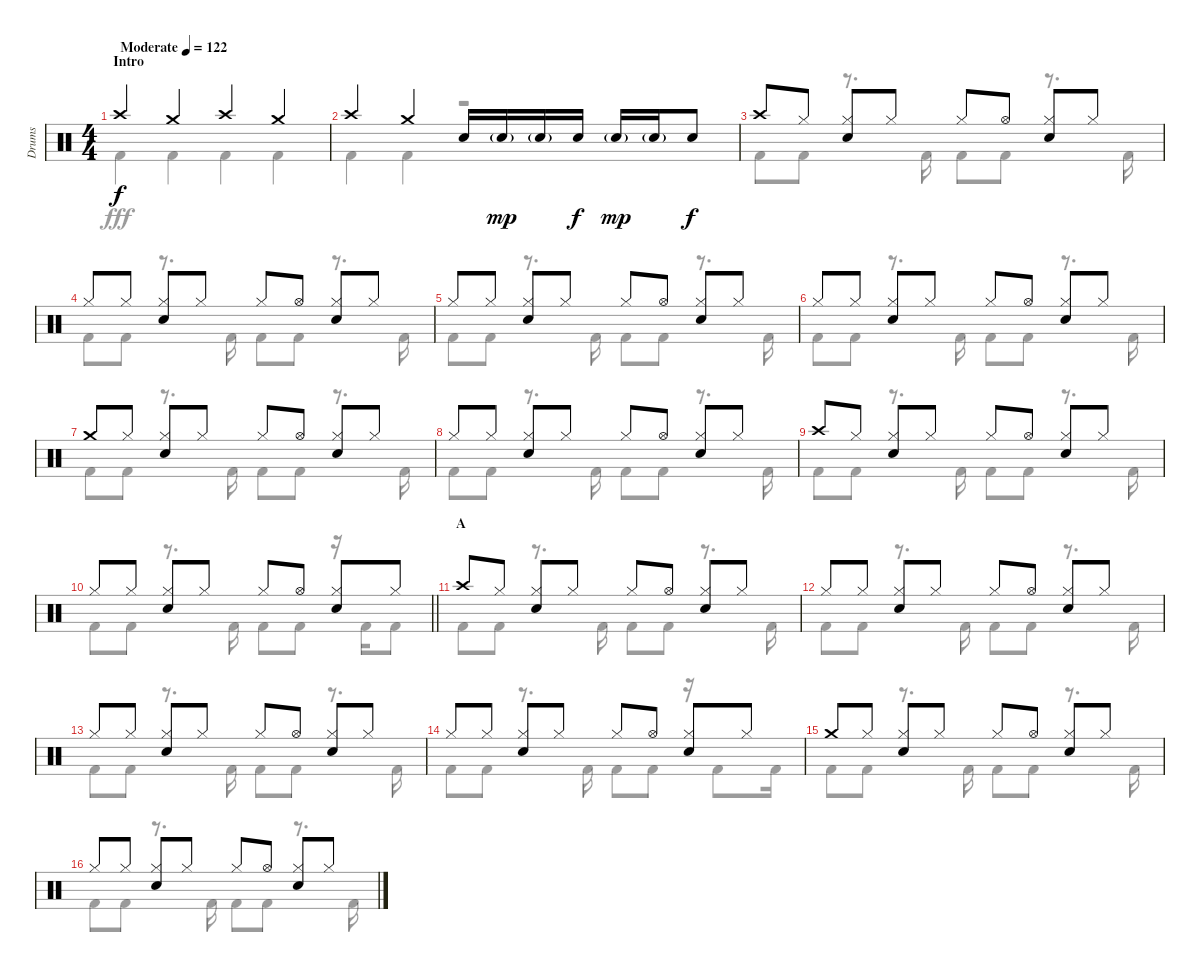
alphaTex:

\track ("Drums" "Drums") {instrument percussion}
\staff {score}
\articulation defaults
\voice
\ts (4 4)
\section ("" "Intro")
\tempo (122 "Moderate")
\clef neutral
\ks c "Crash high (hit)".4{dy f} "Crash medium (hit)".4 "Crash high (hit)".4 "Crash medium (hit)".4
|
"Crash high (hit)".4 "Crash medium (hit)".4 "Snare (hit) 2".16 "Snare (hit) 2"{g}.16{dy mp} "Snare (hit) 2"{g}.16 "Snare (hit) 2".16{dy f} "Snare (hit) 2"{g}.16{dy mp} "Snare (hit) 2"{g}.16 "Snare (hit) 2".8{dy f} |
"Crash high (hit)".8 "Hi-Hat (closed)".8 ("Hi-Hat (closed)" "Snare (hit) 2").8 "Hi-Hat (closed)".8 "Hi-Hat (closed)".8 "Hi-Hat (open)".8 ("Hi-Hat (closed)" "Snare (hit) 2").8 "Hi-Hat (closed)".8 |
"Hi-Hat (closed)".8 "Hi-Hat (closed)".8 ("Hi-Hat (closed)" "Snare (hit) 2").8 "Hi-Hat (closed)".8 "Hi-Hat (closed)".8 "Hi-Hat (open)".8 ("Hi-Hat (closed)" "Snare (hit) 2").8 "Hi-Hat (closed)".8 |
"Hi-Hat (closed)".8 "Hi-Hat (closed)".8 ("Hi-Hat (closed)" "Snare (hit) 2").8 "Hi-Hat (closed)".8 "Hi-Hat (closed)".8 "Hi-Hat (open)".8 ("Hi-Hat (closed)" "Snare (hit) 2").8 "Hi-Hat (closed)".8 |
"Hi-Hat (closed)".8 "Hi-Hat (closed)".8 ("Hi-Hat (closed)" "Snare (hit) 2").8 "Hi-Hat (closed)".8 "Hi-Hat (closed)".8 "Hi-Hat (open)".8 ("Hi-Hat (closed)" "Snare (hit) 2").8 "Hi-Hat (closed)".8 |
"Crash medium (hit)".8 "Hi-Hat (closed)".8 ("Hi-Hat (closed)" "Snare (hit) 2").8 "Hi-Hat (closed)".8 "Hi-Hat (closed)".8 "Hi-Hat (open)".8 ("Hi-Hat (closed)" "Snare (hit) 2").8 "Hi-Hat (closed)".8 |
"Hi-Hat (closed)".8 "Hi-Hat (closed)".8 ("Hi-Hat (closed)" "Snare (hit) 2").8 "Hi-Hat (closed)".8 "Hi-Hat (closed)".8 "Hi-Hat (open)".8 ("Hi-Hat (closed)" "Snare (hit) 2").8 "Hi-Hat (closed)".8 |
"Crash high (hit)".8 "Hi-Hat (closed)".8 ("Hi-Hat (closed)" "Snare (hit) 2").8 "Hi-Hat (closed)".8 "Hi-Hat (closed)".8 "Hi-Hat (open)".8 ("Hi-Hat (closed)" "Snare (hit) 2").8 "Hi-Hat (closed)".8 |
\barLineRight lightlight "Hi-Hat (closed)".8 "Hi-Hat (closed)".8
("Hi-Hat (closed)" "Snare (hit) 2").8 "Hi-Hat (closed)".8 "Hi-Hat (closed)".8 "Hi-Hat (open)".8 ("Hi-Hat (closed)" "Snare (hit) 2").8 "Hi-Hat (closed)".8 |
\section ("" "A")
"Crash high (hit)".8 "Hi-Hat (closed)".8 ("Hi-Hat (closed)" "Snare (hit) 2").8 "Hi-Hat (closed)".8 "Hi-Hat (closed)".8 "Hi-Hat (open)".8 ("Hi-Hat (closed)" "Snare (hit) 2").8 "Hi-Hat (closed)".8 |
"Hi-Hat (closed)".8 "Hi-Hat (closed)".8 ("Hi-Hat (closed)" "Snare (hit) 2").8 "Hi-Hat (closed)".8 "Hi-Hat (closed)".8 "Hi-Hat (open)".8 ("Hi-Hat (closed)" "Snare (hit) 2").8 "Hi-Hat (closed)".8 |
"Hi-Hat (closed)".8 "Hi-Hat (closed)".8 ("Hi-Hat (closed)" "Snare (hit) 2").8 "Hi-Hat (closed)".8 "Hi-Hat (closed)".8 "Hi-Hat (open)".8 ("Hi-Hat (closed)" "Snare (hit) 2").8 "Hi-Hat (closed)".8 |
"Hi-Hat (closed)".8 "Hi-Hat (closed)".8 ("Hi-Hat (closed)" "Snare (hit) 2").8 "Hi-Hat (closed)".8 "Hi-Hat (closed)".8 "Hi-Hat (open)".8 ("Hi-Hat (closed)" "Snare (hit) 2").8 "Hi-Hat (closed)".8 |
"Crash medium (hit)".8 "Hi-Hat (closed)".8 ("Hi-Hat (closed)" "Snare (hit) 2").8 "Hi-Hat (closed)".8 "Hi-Hat (closed)".8 "Hi-Hat (open)".8 ("Hi-Hat (closed)" "Snare (hit) 2").8 "Hi-Hat (closed)".8 |
"Hi-Hat (closed)".8 "Hi-Hat (closed)".8 ("Hi-Hat (closed)" "Snare (hit) 2").8 "Hi-Hat (closed)".8 "Hi-Hat (closed)".8 "Hi-Hat (open)".8 ("Hi-Hat (closed)" "Snare (hit) 2").8 "Hi-Hat (closed)".8
\voice
\clef neutral
\ottava regular
\simile none
\ks c "Kick (hit) 2".4{dy fff} "Kick (hit) 2".4 "Kick (hit) 2".4 "Kick (hit) 2".4
|
"Kick (hit) 2".4 "Kick (hit) 2".4 r.2 |
"Kick (hit) 2".8 "Kick (hit) 2".8 r.8{d} "Kick (hit) 2".16 "Kick (hit) 2".8 "Kick (hit) 2".8 r.8{d} "Kick (hit) 2".16 |
"Kick (hit) 2".8 "Kick (hit) 2".8 r.8{d} "Kick (hit) 2".16 "Kick (hit) 2".8 "Kick (hit) 2".8 r.8{d} "Kick (hit) 2".16 |
"Kick (hit) 2".8 "Kick (hit) 2".8 r.8{d} "Kick (hit) 2".16 "Kick (hit) 2".8 "Kick (hit) 2".8 r.8{d} "Kick (hit) 2".16 |
"Kick (hit) 2".8 "Kick (hit) 2".8 r.8{d} "Kick (hit) 2".16 "Kick (hit) 2".8 "Kick (hit) 2".8 r.8{d} "Kick (hit) 2".16 |
"Kick (hit) 2".8 "Kick (hit) 2".8 r.8{d} "Kick (hit) 2".16 "Kick (hit) 2".8 "Kick (hit) 2".8 r.8{d} "Kick (hit) 2".16 |
"Kick (hit) 2".8 "Kick (hit) 2".8 r.8{d} "Kick (hit) 2".16 "Kick (hit) 2".8 "Kick (hit) 2".8 r.8{d} "Kick (hit) 2".16 |
"Kick (hit) 2".8 "Kick (hit) 2".8 r.8{d} "Kick (hit) 2".16 "Kick (hit) 2".8 "Kick (hit) 2".8 r.8{d} "Kick (hit) 2".16 |
\barLineRight lightlight "Kick (hit) 2".8 "Kick (hit) 2".8
r.8{d} "Kick (hit) 2".16 "Kick (hit) 2".8 "Kick (hit) 2".8 r.16 "Kick (hit) 2".16 "Kick (hit) 2".8 |
"Kick (hit) 2".8 "Kick (hit) 2".8 r.8{d} "Kick (hit) 2".16 "Kick (hit) 2".8 "Kick (hit) 2".8 r.8{d} "Kick (hit) 2".16 |
"Kick (hit) 2".8 "Kick (hit) 2".8 r.8{d} "Kick (hit) 2".16 "Kick (hit) 2".8 "Kick (hit) 2".8 r.8{d} "Kick (hit) 2".16 |
"Kick (hit) 2".8 "Kick (hit) 2".8 r.8{d} "Kick (hit) 2".16 "Kick (hit) 2".8 "Kick (hit) 2".8 r.8{d} "Kick (hit) 2".16 |
"Kick (hit) 2".8 "Kick (hit) 2".8 r.8{d} "Kick (hit) 2".16 "Kick (hit) 2".8 "Kick (hit) 2".8 r.16 "Kick (hit) 2".8 "Kick (hit) 2".16 |
"Kick (hit) 2".8 "Kick (hit) 2".8 r.8{d} "Kick (hit) 2".16 "Kick (hit) 2".8 "Kick (hit) 2".8 r.8{d} "Kick (hit) 2".16 |
"Kick (hit) 2".8 "Kick (hit) 2".8 r.8{d} "Kick (hit) 2".16 "Kick (hit) 2".8 "Kick (hit) 2".8 r.8{d} "Kick (hit) 2".16
